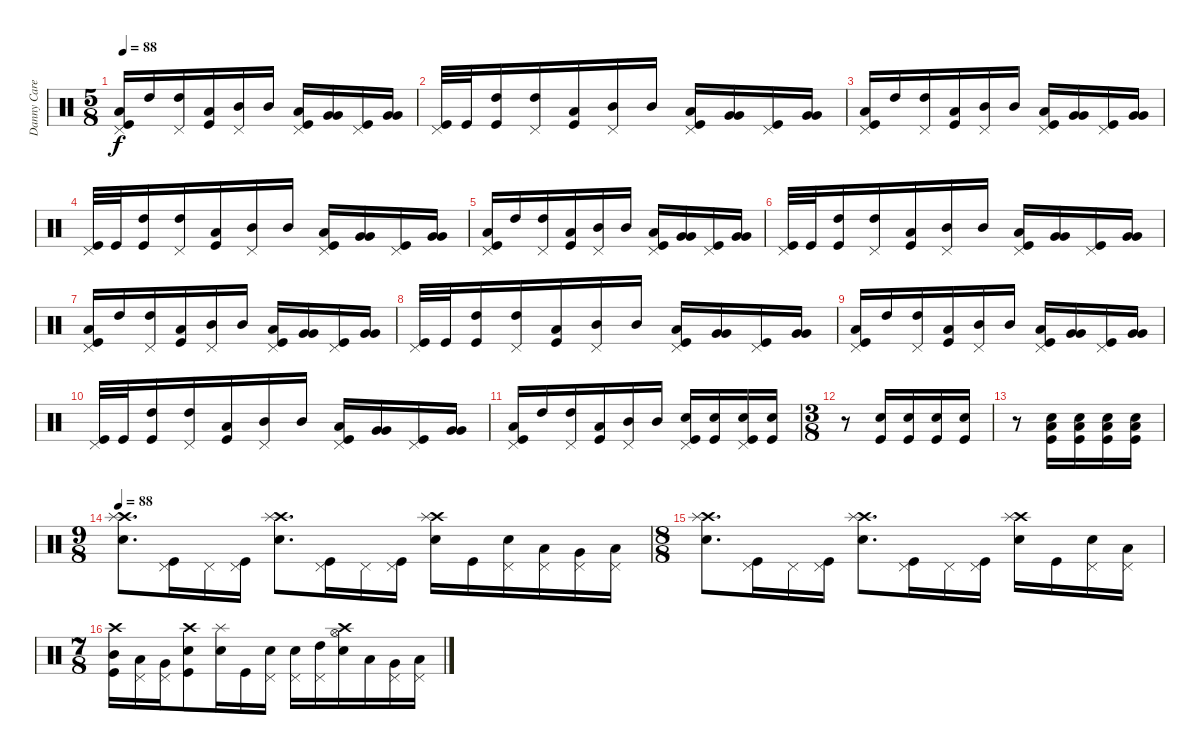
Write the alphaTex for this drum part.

\track ("Danny Carey" "Danny Care") {instrument percussion}
\staff {score}
\articulation defaults
\ts (5 8)
\tempo 88
\clef neutral
\ks c
("Pedal Hi-Hat (hit)" "Low Floor Tom (hit)" "Kick (hit)").16{dy f} "High Tom (hit)".16 ("Pedal Hi-Hat (hit)" "High Tom (hit)").16 ("Low Floor Tom (hit)" "Kick (hit)").16 ("Pedal Hi-Hat (hit)" "Mid Tom (hit)").16 "Mid Tom (hit)".16 ("Pedal Hi-Hat (hit)" "Low Floor Tom (hit)" "Kick (hit)").16 ("Very Low Tom (hit)" "Very Low Tom (hit)").16 ("Pedal Hi-Hat (hit)" "Kick (hit)").16 ("Very Low Tom (hit)" "Very Low Tom (hit)").16 |
("Pedal Hi-Hat (hit)" "Kick (hit)").32 "Kick (hit)".32 ("High Tom (hit)" "Kick (hit)").16 ("Pedal Hi-Hat (hit)" "High Tom (hit)").16 ("Low Floor Tom (hit)" "Kick (hit)").16 ("Pedal Hi-Hat (hit)" "Mid Tom (hit)").16 "Mid Tom (hit)".16 ("Pedal Hi-Hat (hit)" "Low Floor Tom (hit)" "Kick (hit)").16 ("Very Low Tom (hit)" "Very Low Tom (hit)").16 ("Pedal Hi-Hat (hit)" "Kick (hit)").16 ("Very Low Tom (hit)" "Very Low Tom (hit)").16 |
("Pedal Hi-Hat (hit)" "Low Floor Tom (hit)" "Kick (hit)").16 "High Tom (hit)".16 ("Pedal Hi-Hat (hit)" "High Tom (hit)").16 ("Low Floor Tom (hit)" "Kick (hit)").16 ("Pedal Hi-Hat (hit)" "Mid Tom (hit)").16 "Mid Tom (hit)".16 ("Pedal Hi-Hat (hit)" "Low Floor Tom (hit)" "Kick (hit)").16 ("Very Low Tom (hit)" "Very Low Tom (hit)").16 ("Pedal Hi-Hat (hit)" "Kick (hit)").16 ("Very Low Tom (hit)" "Very Low Tom (hit)").16 |
("Pedal Hi-Hat (hit)" "Kick (hit)").32 "Kick (hit)".32 ("High Tom (hit)" "Kick (hit)").16 ("Pedal Hi-Hat (hit)" "High Tom (hit)").16 ("Low Floor Tom (hit)" "Kick (hit)").16 ("Pedal Hi-Hat (hit)" "Mid Tom (hit)").16 "Mid Tom (hit)".16 ("Pedal Hi-Hat (hit)" "Low Floor Tom (hit)" "Kick (hit)").16 ("Very Low Tom (hit)" "Very Low Tom (hit)").16 ("Pedal Hi-Hat (hit)" "Kick (hit)").16 ("Very Low Tom (hit)" "Very Low Tom (hit)").16 |
("Pedal Hi-Hat (hit)" "Low Floor Tom (hit)" "Kick (hit)").16 "High Tom (hit)".16 ("Pedal Hi-Hat (hit)" "High Tom (hit)").16 ("Low Floor Tom (hit)" "Kick (hit)").16 ("Pedal Hi-Hat (hit)" "Mid Tom (hit)").16 "Mid Tom (hit)".16 ("Pedal Hi-Hat (hit)" "Low Floor Tom (hit)" "Kick (hit)").16 ("Very Low Tom (hit)" "Very Low Tom (hit)").16 ("Pedal Hi-Hat (hit)" "Kick (hit)").16 ("Very Low Tom (hit)" "Very Low Tom (hit)").16 |
("Pedal Hi-Hat (hit)" "Kick (hit)").32 "Kick (hit)".32 ("High Tom (hit)" "Kick (hit)").16 ("Pedal Hi-Hat (hit)" "High Tom (hit)").16 ("Low Floor Tom (hit)" "Kick (hit)").16 ("Pedal Hi-Hat (hit)" "Mid Tom (hit)").16 "Mid Tom (hit)".16 ("Pedal Hi-Hat (hit)" "Low Floor Tom (hit)" "Kick (hit)").16 ("Very Low Tom (hit)" "Very Low Tom (hit)").16 ("Pedal Hi-Hat (hit)" "Kick (hit)").16 ("Very Low Tom (hit)" "Very Low Tom (hit)").16 |
("Pedal Hi-Hat (hit)" "Low Floor Tom (hit)" "Kick (hit)").16 "High Tom (hit)".16 ("Pedal Hi-Hat (hit)" "High Tom (hit)").16 ("Low Floor Tom (hit)" "Kick (hit)").16 ("Pedal Hi-Hat (hit)" "Mid Tom (hit)").16 "Mid Tom (hit)".16 ("Pedal Hi-Hat (hit)" "Low Floor Tom (hit)" "Kick (hit)").16 ("Very Low Tom (hit)" "Very Low Tom (hit)").16 ("Pedal Hi-Hat (hit)" "Kick (hit)").16 ("Very Low Tom (hit)" "Very Low Tom (hit)").16 |
("Pedal Hi-Hat (hit)" "Kick (hit)").32 "Kick (hit)".32 ("High Tom (hit)" "Kick (hit)").16 ("Pedal Hi-Hat (hit)" "High Tom (hit)").16 ("Low Floor Tom (hit)" "Kick (hit)").16 ("Pedal Hi-Hat (hit)" "Mid Tom (hit)").16 "Mid Tom (hit)".16 ("Pedal Hi-Hat (hit)" "Low Floor Tom (hit)" "Kick (hit)").16 ("Very Low Tom (hit)" "Very Low Tom (hit)").16 ("Pedal Hi-Hat (hit)" "Kick (hit)").16 ("Very Low Tom (hit)" "Very Low Tom (hit)").16 |
("Pedal Hi-Hat (hit)" "Low Floor Tom (hit)" "Kick (hit)").16 "High Tom (hit)".16 ("Pedal Hi-Hat (hit)" "High Tom (hit)").16 ("Low Floor Tom (hit)" "Kick (hit)").16 ("Pedal Hi-Hat (hit)" "Mid Tom (hit)").16 "Mid Tom (hit)".16 ("Pedal Hi-Hat (hit)" "Low Floor Tom (hit)" "Kick (hit)").16 ("Very Low Tom (hit)" "Very Low Tom (hit)").16 ("Pedal Hi-Hat (hit)" "Kick (hit)").16 ("Very Low Tom (hit)" "Very Low Tom (hit)").16 |
("Pedal Hi-Hat (hit)" "Kick (hit)").32 "Kick (hit)".32 ("High Tom (hit)" "Kick (hit)").16 ("Pedal Hi-Hat (hit)" "High Tom (hit)").16 ("Low Floor Tom (hit)" "Kick (hit)").16 ("Pedal Hi-Hat (hit)" "Mid Tom (hit)").16 "Mid Tom (hit)".16 ("Pedal Hi-Hat (hit)" "Low Floor Tom (hit)" "Kick (hit)").16 ("Very Low Tom (hit)" "Very Low Tom (hit)").16 ("Pedal Hi-Hat (hit)" "Kick (hit)").16 ("Very Low Tom (hit)" "Very Low Tom (hit)").16 |
("Pedal Hi-Hat (hit)" "Low Floor Tom (hit)" "Kick (hit)").16 "High Tom (hit)".16 ("Pedal Hi-Hat (hit)" "High Tom (hit)").16 ("Low Floor Tom (hit)" "Kick (hit)").16 ("Pedal Hi-Hat (hit)" "Mid Tom (hit)").16 "Mid Tom (hit)".16 ("Pedal Hi-Hat (hit)" "Electric Snare (hit)" "Kick (hit)").16 ("Electric Snare (hit)" "Kick (hit)").16 ("Pedal Hi-Hat (hit)" "Electric Snare (hit)" "Kick (hit)").16 ("Electric Snare (hit)" "Kick (hit)").16 |
\ts (3 8)
r.8 ("Electric Snare (hit)" "Kick (hit)").16 ("Electric Snare (hit)" "Kick (hit)").16 ("Electric Snare (hit)" "Kick (hit)").16 ("Electric Snare (hit)" "Kick (hit)").16 |
r.8 ("Low Floor Tom (hit)" "Electric Snare (hit)" "Kick (hit)").16 ("Low Floor Tom (hit)" "Electric Snare (hit)" "Kick (hit)").16 ("Low Floor Tom (hit)" "Electric Snare (hit)" "Kick (hit)").16 ("Low Floor Tom (hit)" "Electric Snare (hit)" "Kick (hit)").16 |
\ts (9 8)
\tempo 88
("Crash high (hit)" "Splash (hit)" "Electric Snare (hit)").8{d} ("Pedal Hi-Hat (hit)" "Kick (hit)").16 "Pedal Hi-Hat (hit)".16 ("Pedal Hi-Hat (hit)" "Kick (hit)").16 ("Crash high (hit)" "Splash (hit)" "Electric Snare (hit)").8{d} ("Pedal Hi-Hat (hit)" "Kick (hit)").16 "Pedal Hi-Hat (hit)".16 ("Pedal Hi-Hat (hit)" "Kick (hit)").16 ("Crash high (hit)" "Splash (hit)" "Electric Snare (hit)").16 "Kick (hit)".16 ("Pedal Hi-Hat (hit)" "Electric Snare (hit)").16 ("Pedal Hi-Hat (hit)" "Low Tom (hit)").16 ("Pedal Hi-Hat (hit)" "Very Low Tom (hit)").16 ("Pedal Hi-Hat (hit)" "Low Floor Tom (hit)").16 |
\ts (8 8)
("Crash high (hit)" "Splash (hit)" "Electric Snare (hit)").8{d} ("Pedal Hi-Hat (hit)" "Kick (hit)").16 "Pedal Hi-Hat (hit)".16 ("Pedal Hi-Hat (hit)" "Kick (hit)").16 ("Crash high (hit)" "Splash (hit)" "Electric Snare (hit)").8{d} ("Pedal Hi-Hat (hit)" "Kick (hit)").16 "Pedal Hi-Hat (hit)".16 ("Pedal Hi-Hat (hit)" "Kick (hit)").16 ("Crash high (hit)" "Splash (hit)" "Electric Snare (hit)").16 "Kick (hit)".16 ("Pedal Hi-Hat (hit)" "Electric Snare (hit)").16 ("Pedal Hi-Hat (hit)" "Low Tom (hit)").16 |
\ts (7 8)
("Crash high (hit)" "Mid Tom (hit)" "Kick (hit)").16 ("Pedal Hi-Hat (hit)" "Low Tom (hit)").16 ("Pedal Hi-Hat (hit)" "Very Low Tom (hit)").16 ("Crash high (hit)" "Electric Snare (hit)" "Kick (hit)").8 ("Splash (hit)" "Electric Snare (hit)").16 "Kick (hit)".16 ("Pedal Hi-Hat (hit)" "Electric Snare (hit)").16 ("Pedal Hi-Hat (hit)" "Electric Snare (hit)").16 ("Pedal Hi-Hat (hit)" "High Tom (hit)").16 ("Crash high (hit)" "Hi-Hat (open)" "Electric Snare (hit)").16 "Low Tom (hit)".16 ("Pedal Hi-Hat (hit)" "Very Low Tom (hit)").16 ("Pedal Hi-Hat (hit)" "Low Floor Tom (hit)").16
